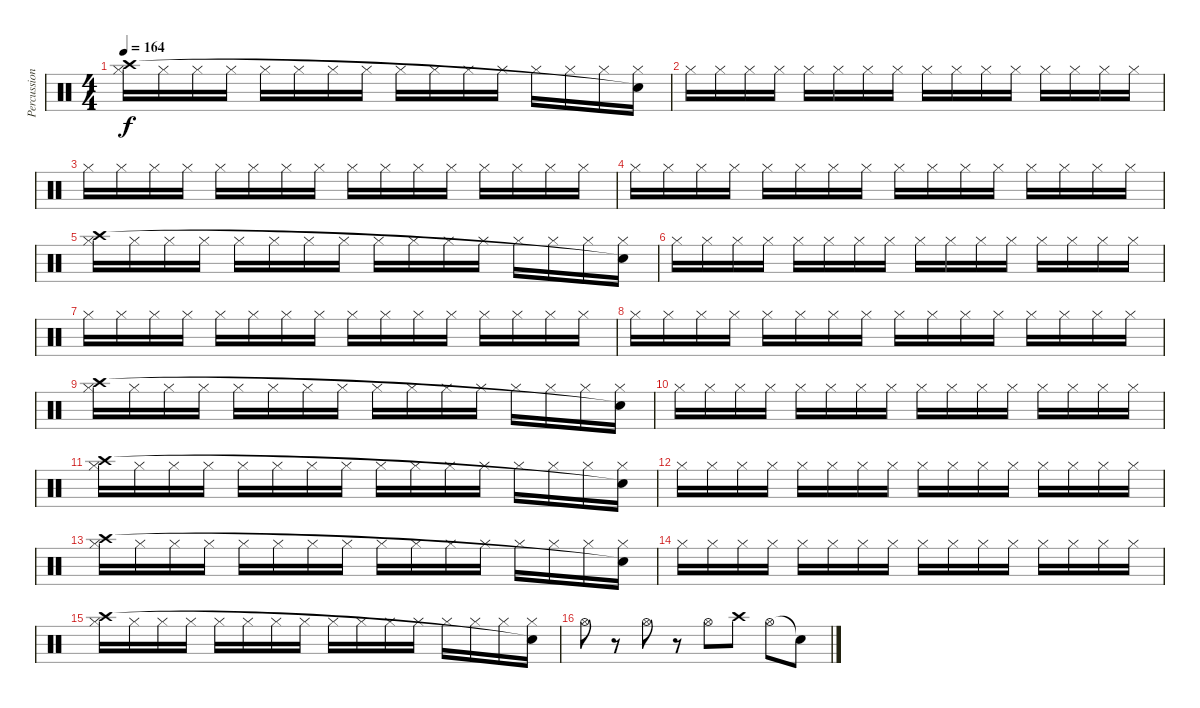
\track ("Percussion" "Percussion") {instrument percussion}
\staff {score}
\articulation defaults
\ts (4 4)
\tempo 164
\clef neutral
\ks c
("Hi-Hat (closed)" "Crash high (hit)").16{dy f} "Hi-Hat (closed)".16 "Hi-Hat (closed)".16 "Hi-Hat (closed)".16 "Hi-Hat (closed)".16 "Hi-Hat (closed)".16 "Hi-Hat (closed)".16 "Hi-Hat (closed)".16 "Hi-Hat (closed)".16 "Hi-Hat (closed)".16 "Hi-Hat (closed)".16 "Hi-Hat (closed)".16 "Hi-Hat (closed)".16 "Hi-Hat (closed)".16 "Hi-Hat (closed)".16 ("Hi-Hat (closed)" "Snare (hit)"{t}).16 |
"Hi-Hat (closed)".16 "Hi-Hat (closed)".16 "Hi-Hat (closed)".16 "Hi-Hat (closed)".16 "Hi-Hat (closed)".16 "Hi-Hat (closed)".16 "Hi-Hat (closed)".16 "Hi-Hat (closed)".16 "Hi-Hat (closed)".16 "Hi-Hat (closed)".16 "Hi-Hat (closed)".16 "Hi-Hat (closed)".16 "Hi-Hat (closed)".16 "Hi-Hat (closed)".16 "Hi-Hat (closed)".16 "Hi-Hat (closed)".16 |
"Hi-Hat (closed)".16 "Hi-Hat (closed)".16 "Hi-Hat (closed)".16 "Hi-Hat (closed)".16 "Hi-Hat (closed)".16 "Hi-Hat (closed)".16 "Hi-Hat (closed)".16 "Hi-Hat (closed)".16 "Hi-Hat (closed)".16 "Hi-Hat (closed)".16 "Hi-Hat (closed)".16 "Hi-Hat (closed)".16 "Hi-Hat (closed)".16 "Hi-Hat (closed)".16 "Hi-Hat (closed)".16 "Hi-Hat (closed)".16 |
"Hi-Hat (closed)".16 "Hi-Hat (closed)".16 "Hi-Hat (closed)".16 "Hi-Hat (closed)".16 "Hi-Hat (closed)".16 "Hi-Hat (closed)".16 "Hi-Hat (closed)".16 "Hi-Hat (closed)".16 "Hi-Hat (closed)".16 "Hi-Hat (closed)".16 "Hi-Hat (closed)".16 "Hi-Hat (closed)".16 "Hi-Hat (closed)".16 "Hi-Hat (closed)".16 "Hi-Hat (closed)".16 "Hi-Hat (closed)".16 |
("Hi-Hat (closed)" "Crash high (hit)").16 "Hi-Hat (closed)".16 "Hi-Hat (closed)".16 "Hi-Hat (closed)".16 "Hi-Hat (closed)".16 "Hi-Hat (closed)".16 "Hi-Hat (closed)".16 "Hi-Hat (closed)".16 "Hi-Hat (closed)".16 "Hi-Hat (closed)".16 "Hi-Hat (closed)".16 "Hi-Hat (closed)".16 "Hi-Hat (closed)".16 "Hi-Hat (closed)".16 "Hi-Hat (closed)".16 ("Hi-Hat (closed)" "Snare (hit)"{t}).16 |
"Hi-Hat (closed)".16 "Hi-Hat (closed)".16 "Hi-Hat (closed)".16 "Hi-Hat (closed)".16 "Hi-Hat (closed)".16 "Hi-Hat (closed)".16 "Hi-Hat (closed)".16 "Hi-Hat (closed)".16 "Hi-Hat (closed)".16 "Hi-Hat (closed)".16 "Hi-Hat (closed)".16 "Hi-Hat (closed)".16 "Hi-Hat (closed)".16 "Hi-Hat (closed)".16 "Hi-Hat (closed)".16 "Hi-Hat (closed)".16 |
"Hi-Hat (closed)".16 "Hi-Hat (closed)".16 "Hi-Hat (closed)".16 "Hi-Hat (closed)".16 "Hi-Hat (closed)".16 "Hi-Hat (closed)".16 "Hi-Hat (closed)".16 "Hi-Hat (closed)".16 "Hi-Hat (closed)".16 "Hi-Hat (closed)".16 "Hi-Hat (closed)".16 "Hi-Hat (closed)".16 "Hi-Hat (closed)".16 "Hi-Hat (closed)".16 "Hi-Hat (closed)".16 "Hi-Hat (closed)".16 |
"Hi-Hat (closed)".16 "Hi-Hat (closed)".16 "Hi-Hat (closed)".16 "Hi-Hat (closed)".16 "Hi-Hat (closed)".16 "Hi-Hat (closed)".16 "Hi-Hat (closed)".16 "Hi-Hat (closed)".16 "Hi-Hat (closed)".16 "Hi-Hat (closed)".16 "Hi-Hat (closed)".16 "Hi-Hat (closed)".16 "Hi-Hat (closed)".16 "Hi-Hat (closed)".16 "Hi-Hat (closed)".16 "Hi-Hat (closed)".16 |
("Hi-Hat (closed)" "Crash high (hit)").16 "Hi-Hat (closed)".16 "Hi-Hat (closed)".16 "Hi-Hat (closed)".16 "Hi-Hat (closed)".16 "Hi-Hat (closed)".16 "Hi-Hat (closed)".16 "Hi-Hat (closed)".16 "Hi-Hat (closed)".16 "Hi-Hat (closed)".16 "Hi-Hat (closed)".16 "Hi-Hat (closed)".16 "Hi-Hat (closed)".16 "Hi-Hat (closed)".16 "Hi-Hat (closed)".16 ("Hi-Hat (closed)" "Snare (hit)"{t}).16 |
"Hi-Hat (closed)".16 "Hi-Hat (closed)".16 "Hi-Hat (closed)".16 "Hi-Hat (closed)".16 "Hi-Hat (closed)".16 "Hi-Hat (closed)".16 "Hi-Hat (closed)".16 "Hi-Hat (closed)".16 "Hi-Hat (closed)".16 "Hi-Hat (closed)".16 "Hi-Hat (closed)".16 "Hi-Hat (closed)".16 "Hi-Hat (closed)".16 "Hi-Hat (closed)".16 "Hi-Hat (closed)".16 "Hi-Hat (closed)".16 |
("Hi-Hat (closed)" "Crash high (hit)").16 "Hi-Hat (closed)".16 "Hi-Hat (closed)".16 "Hi-Hat (closed)".16 "Hi-Hat (closed)".16 "Hi-Hat (closed)".16 "Hi-Hat (closed)".16 "Hi-Hat (closed)".16 "Hi-Hat (closed)".16 "Hi-Hat (closed)".16 "Hi-Hat (closed)".16 "Hi-Hat (closed)".16 "Hi-Hat (closed)".16 "Hi-Hat (closed)".16 "Hi-Hat (closed)".16 ("Hi-Hat (closed)" "Snare (hit)"{t}).16 |
"Hi-Hat (closed)".16 "Hi-Hat (closed)".16 "Hi-Hat (closed)".16 "Hi-Hat (closed)".16 "Hi-Hat (closed)".16 "Hi-Hat (closed)".16 "Hi-Hat (closed)".16 "Hi-Hat (closed)".16 "Hi-Hat (closed)".16 "Hi-Hat (closed)".16 "Hi-Hat (closed)".16 "Hi-Hat (closed)".16 "Hi-Hat (closed)".16 "Hi-Hat (closed)".16 "Hi-Hat (closed)".16 "Hi-Hat (closed)".16 |
("Hi-Hat (closed)" "Crash high (hit)").16 "Hi-Hat (closed)".16 "Hi-Hat (closed)".16 "Hi-Hat (closed)".16 "Hi-Hat (closed)".16 "Hi-Hat (closed)".16 "Hi-Hat (closed)".16 "Hi-Hat (closed)".16 "Hi-Hat (closed)".16 "Hi-Hat (closed)".16 "Hi-Hat (closed)".16 "Hi-Hat (closed)".16 "Hi-Hat (closed)".16 "Hi-Hat (closed)".16 "Hi-Hat (closed)".16 ("Hi-Hat (closed)" "Snare (hit)"{t}).16 |
"Hi-Hat (closed)".16 "Hi-Hat (closed)".16 "Hi-Hat (closed)".16 "Hi-Hat (closed)".16 "Hi-Hat (closed)".16 "Hi-Hat (closed)".16 "Hi-Hat (closed)".16 "Hi-Hat (closed)".16 "Hi-Hat (closed)".16 "Hi-Hat (closed)".16 "Hi-Hat (closed)".16 "Hi-Hat (closed)".16 "Hi-Hat (closed)".16 "Hi-Hat (closed)".16 "Hi-Hat (closed)".16 "Hi-Hat (closed)".16 |
("Hi-Hat (closed)" "Crash high (hit)").16 "Hi-Hat (closed)".16 "Hi-Hat (closed)".16 "Hi-Hat (closed)".16 "Hi-Hat (closed)".16 "Hi-Hat (closed)".16 "Hi-Hat (closed)".16 "Hi-Hat (closed)".16 "Hi-Hat (closed)".16 "Hi-Hat (closed)".16 "Hi-Hat (closed)".16 "Hi-Hat (closed)".16 "Hi-Hat (closed)".16 "Hi-Hat (closed)".16 "Hi-Hat (closed)".16 ("Hi-Hat (closed)" "Snare (hit)"{t}).16 |
"Hi-Hat (open)".8 r.8 "Hi-Hat (open)".8 r.8 "Hi-Hat (open)".8 "Crash high (hit)".8 "Hi-Hat (open)".8 "Snare (hit)"{t}.8
